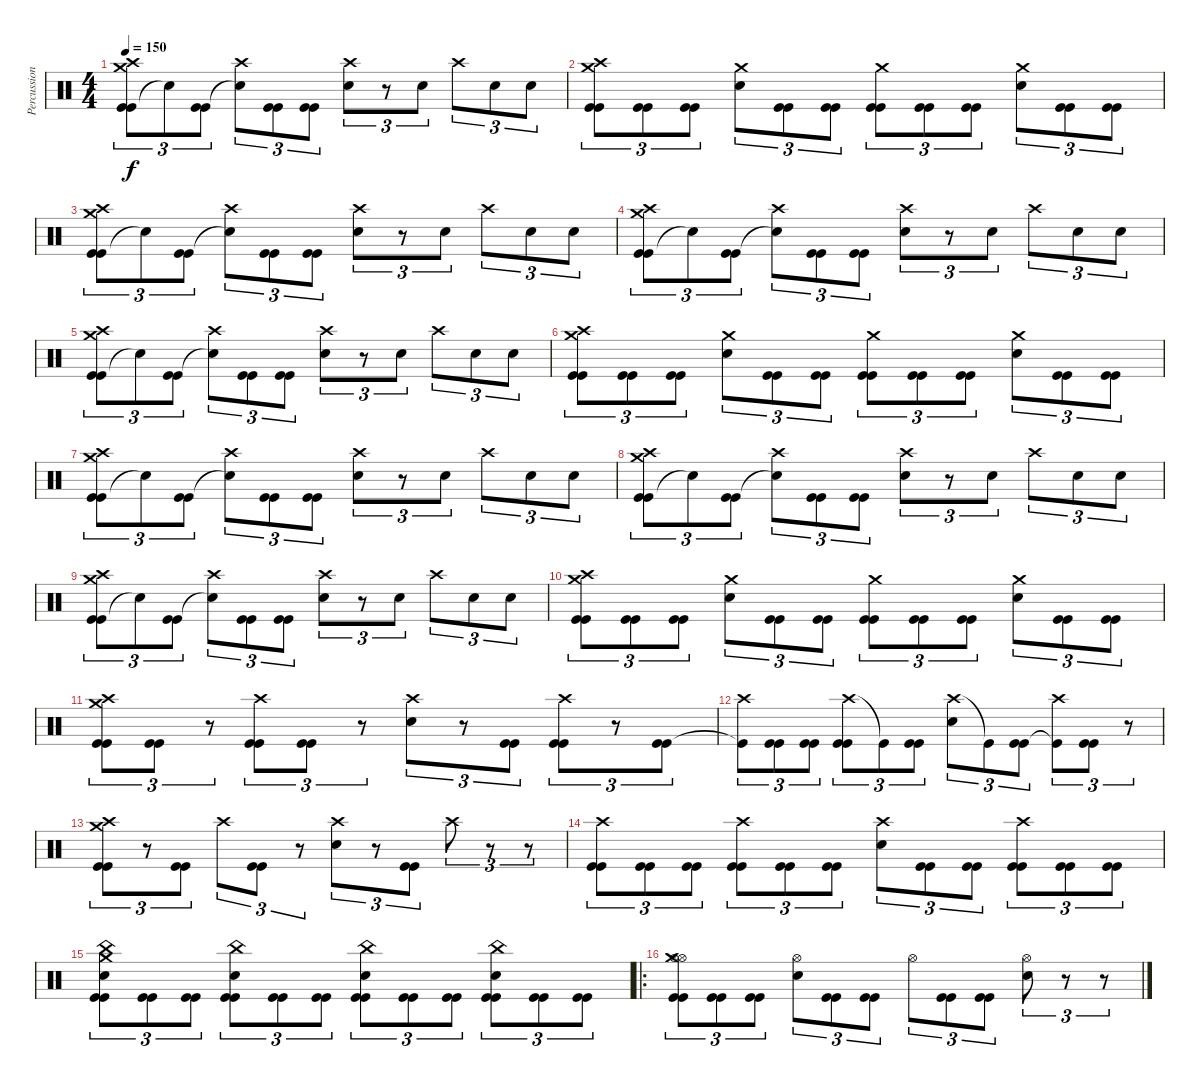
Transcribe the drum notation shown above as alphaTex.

\track ("Percussion" "Percussion") {instrument percussion}
\staff {score}
\articulation defaults
\ts (4 4)
\tempo 150
\clef neutral
\ks c
("Kick (hit)" "Crash medium (hit)" "Crash high (hit)" "Kick (hit)").8{tu (3 2) dy f} "Snare (hit)"{t}.8{tu (3 2)} ("Kick (hit)" "Kick (hit)").8{tu (3 2)} ("Crash high (hit)" "Snare (hit)"{t}).8{tu (3 2)} ("Kick (hit)" "Kick (hit)").8{tu (3 2)} ("Kick (hit)" "Kick (hit)").8{tu (3 2)} ("Crash high (hit)" "Snare (hit) 2").8{tu (3 2)} r.8{tu (3 2)} "Snare (hit) 2".8{tu (3 2)} "Crash high (hit)".8{tu (3 2)} "Snare (hit) 2".8{tu (3 2)} "Snare (hit) 2".8{tu (3 2)} |
("Crash medium (hit)" "Crash high (hit)" "Kick (hit)" "Kick (hit)").8{tu (3 2)} ("Kick (hit)" "Kick (hit)").8{tu (3 2)} ("Kick (hit)" "Kick (hit)").8{tu (3 2)} ("Crash medium (hit)" "Snare (hit) 2").8{tu (3 2)} ("Kick (hit)" "Kick (hit)").8{tu (3 2)} ("Kick (hit)" "Kick (hit)").8{tu (3 2)} ("Crash medium (hit)" "Kick (hit)" "Kick (hit)").8{tu (3 2)} ("Kick (hit)" "Kick (hit)").8{tu (3 2)} ("Kick (hit)" "Kick (hit)").8{tu (3 2)} ("Crash medium (hit)" "Snare (hit) 2").8{tu (3 2)} ("Kick (hit)" "Kick (hit)").8{tu (3 2)} ("Kick (hit)" "Kick (hit)").8{tu (3 2)} |
("Kick (hit)" "Crash medium (hit)" "Crash high (hit)" "Kick (hit)").8{tu (3 2)} "Snare (hit)"{t}.8{tu (3 2)} ("Kick (hit)" "Kick (hit)").8{tu (3 2)} ("Crash high (hit)" "Snare (hit)"{t}).8{tu (3 2)} ("Kick (hit)" "Kick (hit)").8{tu (3 2)} ("Kick (hit)" "Kick (hit)").8{tu (3 2)} ("Crash high (hit)" "Snare (hit) 2").8{tu (3 2)} r.8{tu (3 2)} "Snare (hit) 2".8{tu (3 2)} "Crash high (hit)".8{tu (3 2)} "Snare (hit) 2".8{tu (3 2)} "Snare (hit) 2".8{tu (3 2)} |
("Kick (hit)" "Crash medium (hit)" "Crash high (hit)" "Kick (hit)").8{tu (3 2)} "Snare (hit)"{t}.8{tu (3 2)} ("Kick (hit)" "Kick (hit)").8{tu (3 2)} ("Crash high (hit)" "Snare (hit)"{t}).8{tu (3 2)} ("Kick (hit)" "Kick (hit)").8{tu (3 2)} ("Kick (hit)" "Kick (hit)").8{tu (3 2)} ("Crash high (hit)" "Snare (hit) 2").8{tu (3 2)} r.8{tu (3 2)} "Snare (hit) 2".8{tu (3 2)} "Crash high (hit)".8{tu (3 2)} "Snare (hit) 2".8{tu (3 2)} "Snare (hit) 2".8{tu (3 2)} |
("Kick (hit)" "Crash medium (hit)" "Crash high (hit)" "Kick (hit)").8{tu (3 2)} "Snare (hit)"{t}.8{tu (3 2)} ("Kick (hit)" "Kick (hit)").8{tu (3 2)} ("Crash high (hit)" "Snare (hit)"{t}).8{tu (3 2)} ("Kick (hit)" "Kick (hit)").8{tu (3 2)} ("Kick (hit)" "Kick (hit)").8{tu (3 2)} ("Crash high (hit)" "Snare (hit) 2").8{tu (3 2)} r.8{tu (3 2)} "Snare (hit) 2".8{tu (3 2)} "Crash high (hit)".8{tu (3 2)} "Snare (hit) 2".8{tu (3 2)} "Snare (hit) 2".8{tu (3 2)} |
("Crash medium (hit)" "Crash high (hit)" "Kick (hit)" "Kick (hit)").8{tu (3 2)} ("Kick (hit)" "Kick (hit)").8{tu (3 2)} ("Kick (hit)" "Kick (hit)").8{tu (3 2)} ("Crash medium (hit)" "Snare (hit) 2").8{tu (3 2)} ("Kick (hit)" "Kick (hit)").8{tu (3 2)} ("Kick (hit)" "Kick (hit)").8{tu (3 2)} ("Crash medium (hit)" "Kick (hit)" "Kick (hit)").8{tu (3 2)} ("Kick (hit)" "Kick (hit)").8{tu (3 2)} ("Kick (hit)" "Kick (hit)").8{tu (3 2)} ("Crash medium (hit)" "Snare (hit) 2").8{tu (3 2)} ("Kick (hit)" "Kick (hit)").8{tu (3 2)} ("Kick (hit)" "Kick (hit)").8{tu (3 2)} |
("Kick (hit)" "Crash medium (hit)" "Crash high (hit)" "Kick (hit)").8{tu (3 2)} "Snare (hit)"{t}.8{tu (3 2)} ("Kick (hit)" "Kick (hit)").8{tu (3 2)} ("Crash high (hit)" "Snare (hit)"{t}).8{tu (3 2)} ("Kick (hit)" "Kick (hit)").8{tu (3 2)} ("Kick (hit)" "Kick (hit)").8{tu (3 2)} ("Crash high (hit)" "Snare (hit) 2").8{tu (3 2)} r.8{tu (3 2)} "Snare (hit) 2".8{tu (3 2)} "Crash high (hit)".8{tu (3 2)} "Snare (hit) 2".8{tu (3 2)} "Snare (hit) 2".8{tu (3 2)} |
("Kick (hit)" "Crash medium (hit)" "Crash high (hit)" "Kick (hit)").8{tu (3 2)} "Snare (hit)"{t}.8{tu (3 2)} ("Kick (hit)" "Kick (hit)").8{tu (3 2)} ("Crash high (hit)" "Snare (hit)"{t}).8{tu (3 2)} ("Kick (hit)" "Kick (hit)").8{tu (3 2)} ("Kick (hit)" "Kick (hit)").8{tu (3 2)} ("Crash high (hit)" "Snare (hit) 2").8{tu (3 2)} r.8{tu (3 2)} "Snare (hit) 2".8{tu (3 2)} "Crash high (hit)".8{tu (3 2)} "Snare (hit) 2".8{tu (3 2)} "Snare (hit) 2".8{tu (3 2)} |
("Kick (hit)" "Crash medium (hit)" "Crash high (hit)" "Kick (hit)").8{tu (3 2)} "Snare (hit)"{t}.8{tu (3 2)} ("Kick (hit)" "Kick (hit)").8{tu (3 2)} ("Crash high (hit)" "Snare (hit)"{t}).8{tu (3 2)} ("Kick (hit)" "Kick (hit)").8{tu (3 2)} ("Kick (hit)" "Kick (hit)").8{tu (3 2)} ("Crash high (hit)" "Snare (hit) 2").8{tu (3 2)} r.8{tu (3 2)} "Snare (hit) 2".8{tu (3 2)} "Crash high (hit)".8{tu (3 2)} "Snare (hit) 2".8{tu (3 2)} "Snare (hit) 2".8{tu (3 2)} |
("Crash medium (hit)" "Crash high (hit)" "Kick (hit)" "Kick (hit)").8{tu (3 2)} ("Kick (hit)" "Kick (hit)").8{tu (3 2)} ("Kick (hit)" "Kick (hit)").8{tu (3 2)} ("Crash medium (hit)" "Snare (hit) 2").8{tu (3 2)} ("Kick (hit)" "Kick (hit)").8{tu (3 2)} ("Kick (hit)" "Kick (hit)").8{tu (3 2)} ("Crash medium (hit)" "Kick (hit)" "Kick (hit)").8{tu (3 2)} ("Kick (hit)" "Kick (hit)").8{tu (3 2)} ("Kick (hit)" "Kick (hit)").8{tu (3 2)} ("Crash medium (hit)" "Snare (hit) 2").8{tu (3 2)} ("Kick (hit)" "Kick (hit)").8{tu (3 2)} ("Kick (hit)" "Kick (hit)").8{tu (3 2)} |
("Kick (hit)" "Kick (hit)" "Crash high (hit)" "Crash medium (hit)").8{tu (3 2)} ("Kick (hit)" "Kick (hit)").8{tu (3 2)} r.8{tu (3 2)} ("Kick (hit)" "Kick (hit)" "Crash high (hit)").8{tu (3 2)} ("Kick (hit)" "Kick (hit)").8{tu (3 2)} r.8{tu (3 2)} ("Snare (hit) 2" "Crash high (hit)").8{tu (3 2)} r.8{tu (3 2)} ("Kick (hit)" "Kick (hit)").8{tu (3 2)} ("Kick (hit)" "Kick (hit)" "Crash high (hit)").8{tu (3 2)} r.8{tu (3 2)} ("Kick (hit)" "Kick (hit)").8{tu (3 2)} |
("Crash high (hit)" "Kick (hit)"{t}).8{tu (3 2)} ("Kick (hit)" "Kick (hit)").8{tu (3 2)} ("Kick (hit)" "Kick (hit)").8{tu (3 2)} ("Crash high (hit)" "Kick (hit)" "Kick (hit)").8{tu (3 2)} "Kick (hit)"{t}.8{tu (3 2)} ("Kick (hit)" "Kick (hit)").8{tu (3 2)} ("Crash high (hit)" "Snare (hit) 2").8{tu (3 2)} "Kick (hit)"{t}.8{tu (3 2)} ("Kick (hit)" "Kick (hit)").8{tu (3 2)} ("Crash high (hit)" "Kick (hit)"{t}).8{tu (3 2)} ("Kick (hit)" "Kick (hit)").8{tu (3 2)} r.8{tu (3 2)} |
("Crash high (hit)" "Kick (hit)" "Crash medium (hit)" "Kick (hit)").8{tu (3 2)} r.8{tu (3 2)} ("Kick (hit)" "Kick (hit)").8{tu (3 2)} "Crash high (hit)".8{tu (3 2)} ("Kick (hit)" "Kick (hit)").8{tu (3 2)} r.8{tu (3 2)} ("Crash high (hit)" "Snare (hit) 2").8{tu (3 2)} r.8{tu (3 2)} ("Kick (hit)" "Kick (hit)").8{tu (3 2)} "Crash high (hit)".8{tu (3 2)} r.8{tu (3 2)} r.8{tu (3 2)} |
("Crash high (hit)" "Kick (hit)" "Kick (hit)").8{tu (3 2)} ("Kick (hit)" "Kick (hit)").8{tu (3 2)} ("Kick (hit)" "Kick (hit)").8{tu (3 2)} ("Crash high (hit)" "Kick (hit)" "Kick (hit)").8{tu (3 2)} ("Kick (hit)" "Kick (hit)").8{tu (3 2)} ("Kick (hit)" "Kick (hit)").8{tu (3 2)} ("Crash high (hit)" "Snare (hit) 2").8{tu (3 2)} ("Kick (hit)" "Kick (hit)").8{tu (3 2)} ("Kick (hit)" "Kick (hit)").8{tu (3 2)} ("Crash high (hit)" "Kick (hit)" "Kick (hit)").8{tu (3 2)} ("Kick (hit)" "Kick (hit)").8{tu (3 2)} ("Kick (hit)" "Kick (hit)").8{tu (3 2)} |
("Kick (hit)" "Crash medium (hit)" "China (hit)" "Snare (hit) 2" "Kick (hit)").8{tu (3 2)} ("Kick (hit)" "Kick (hit)").8{tu (3 2)} ("Kick (hit)" "Kick (hit)").8{tu (3 2)} ("Kick (hit)" "China (hit)" "Snare (hit) 2" "Kick (hit)").8{tu (3 2)} ("Kick (hit)" "Kick (hit)").8{tu (3 2)} ("Kick (hit)" "Kick (hit)").8{tu (3 2)} ("Kick (hit)" "China (hit)" "Snare (hit) 2" "Kick (hit)").8{tu (3 2)} ("Kick (hit)" "Kick (hit)").8{tu (3 2)} ("Kick (hit)" "Kick (hit)").8{tu (3 2)} ("Kick (hit)" "China (hit)" "Snare (hit) 2" "Kick (hit)").8{tu (3 2)} ("Kick (hit)" "Kick (hit)").8{tu (3 2)} ("Kick (hit)" "Kick (hit)").8{tu (3 2)} |
\ro
("Hi-Hat (open)" "Kick (hit)" "Crash medium (hit)" "Hi-Hat (open)" "Kick (hit)").8{tu (3 2)} ("Kick (hit)" "Kick (hit)").8{tu (3 2)} ("Kick (hit)" "Kick (hit)").8{tu (3 2)} ("Hi-Hat (open)" "Snare (hit) 2").8{tu (3 2)} ("Kick (hit)" "Kick (hit)").8{tu (3 2)} ("Kick (hit)" "Kick (hit)").8{tu (3 2)} "Hi-Hat (open)".8{tu (3 2)} ("Kick (hit)" "Kick (hit)").8{tu (3 2)} ("Kick (hit)" "Kick (hit)").8{tu (3 2)} ("Hi-Hat (open)" "Snare (hit) 2").8{tu (3 2)} r.8{tu (3 2)} r.8{tu (3 2)}
